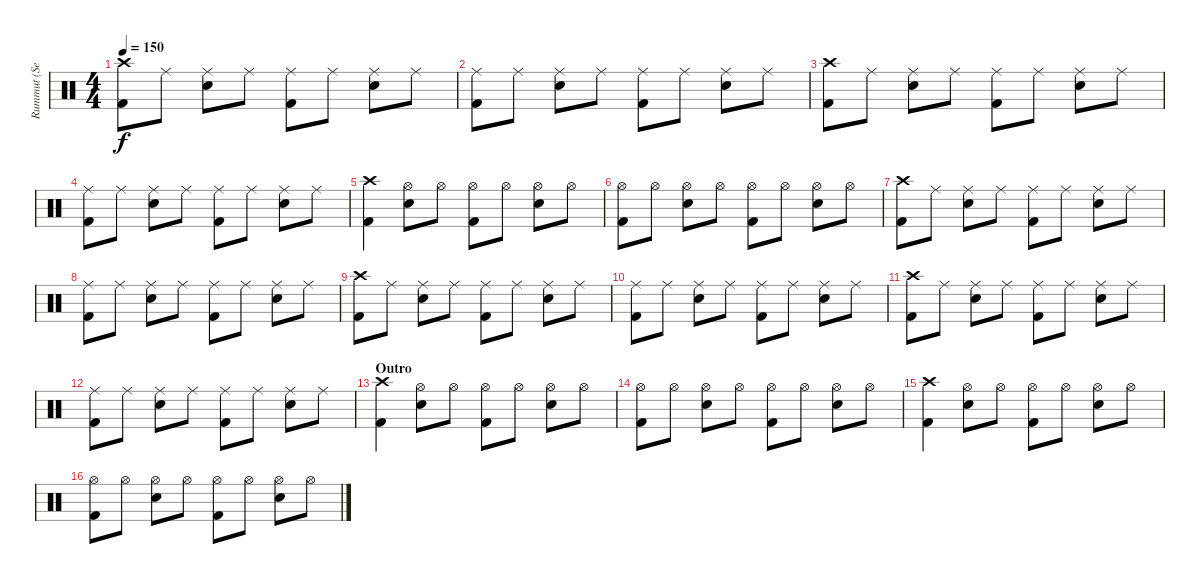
\track ("Rummut (Seppo Pohjolainen)" "Rummut (Se") {instrument percussion}
\staff {score}
\articulation defaults
\ts (4 4)
\tempo 150
\clef neutral
\ks c
("Crash high (hit)" "Kick (hit) 2").8{dy f} "Ride (middle)".8 ("Ride (middle)" "Snare (hit) 2").8 "Ride (middle)".8 ("Ride (middle)" "Kick (hit) 2").8 "Ride (middle)".8 ("Ride (middle)" "Snare (hit) 2").8 "Ride (middle)".8 |
("Ride (middle)" "Kick (hit) 2").8 "Ride (middle)".8 ("Ride (middle)" "Snare (hit) 2").8 "Ride (middle)".8 ("Ride (middle)" "Kick (hit) 2").8 "Ride (middle)".8 ("Ride (middle)" "Snare (hit) 2").8 "Ride (middle)".8 |
("Crash high (hit)" "Kick (hit) 2").8 "Ride (middle)".8 ("Ride (middle)" "Snare (hit) 2").8 "Ride (middle)".8 ("Ride (middle)" "Kick (hit) 2").8 "Ride (middle)".8 ("Ride (middle)" "Snare (hit) 2").8 "Ride (middle)".8 |
("Ride (middle)" "Kick (hit) 2").8 "Ride (middle)".8 ("Ride (middle)" "Snare (hit) 2").8 "Ride (middle)".8 ("Ride (middle)" "Kick (hit) 2").8 "Ride (middle)".8 ("Ride (middle)" "Snare (hit) 2").8 "Ride (middle)".8 |
("Crash high (hit)" "Kick (hit) 2").4 ("Hi-Hat (open)" "Snare (hit) 2").8 "Hi-Hat (open)".8 ("Hi-Hat (open)" "Kick (hit) 2").8 "Hi-Hat (open)".8 ("Hi-Hat (open)" "Snare (hit) 2").8 "Hi-Hat (open)".8 |
("Hi-Hat (open)" "Kick (hit) 2").8 "Hi-Hat (open)".8 ("Hi-Hat (open)" "Snare (hit) 2").8 "Hi-Hat (open)".8 ("Hi-Hat (open)" "Kick (hit) 2").8 "Hi-Hat (open)".8 ("Hi-Hat (open)" "Snare (hit) 2").8 "Hi-Hat (open)".8 |
("Crash high (hit)" "Kick (hit) 2").8 "Ride (middle)".8 ("Ride (middle)" "Snare (hit) 2").8 "Ride (middle)".8 ("Ride (middle)" "Kick (hit) 2").8 "Ride (middle)".8 ("Ride (middle)" "Snare (hit) 2").8 "Ride (middle)".8 |
("Ride (middle)" "Kick (hit) 2").8 "Ride (middle)".8 ("Ride (middle)" "Snare (hit) 2").8 "Ride (middle)".8 ("Ride (middle)" "Kick (hit) 2").8 "Ride (middle)".8 ("Ride (middle)" "Snare (hit) 2").8 "Ride (middle)".8 |
("Crash high (hit)" "Kick (hit) 2").8 "Ride (middle)".8 ("Ride (middle)" "Snare (hit) 2").8 "Ride (middle)".8 ("Ride (middle)" "Kick (hit) 2").8 "Ride (middle)".8 ("Ride (middle)" "Snare (hit) 2").8 "Ride (middle)".8 |
("Ride (middle)" "Kick (hit) 2").8 "Ride (middle)".8 ("Ride (middle)" "Snare (hit) 2").8 "Ride (middle)".8 ("Ride (middle)" "Kick (hit) 2").8 "Ride (middle)".8 ("Ride (middle)" "Snare (hit) 2").8 "Ride (middle)".8 |
("Crash high (hit)" "Kick (hit) 2").8 "Ride (middle)".8 ("Ride (middle)" "Snare (hit) 2").8 "Ride (middle)".8 ("Ride (middle)" "Kick (hit) 2").8 "Ride (middle)".8 ("Ride (middle)" "Snare (hit) 2").8 "Ride (middle)".8 |
("Ride (middle)" "Kick (hit) 2").8 "Ride (middle)".8 ("Ride (middle)" "Snare (hit) 2").8 "Ride (middle)".8 ("Ride (middle)" "Kick (hit) 2").8 "Ride (middle)".8 ("Ride (middle)" "Snare (hit) 2").8 "Ride (middle)".8 |
\section ("" "Outro")
("Crash high (hit)" "Kick (hit) 2").4 ("Hi-Hat (open)" "Snare (hit) 2").8 "Hi-Hat (open)".8 ("Hi-Hat (open)" "Kick (hit) 2").8 "Hi-Hat (open)".8 ("Hi-Hat (open)" "Snare (hit) 2").8 "Hi-Hat (open)".8 |
("Hi-Hat (open)" "Kick (hit) 2").8 "Hi-Hat (open)".8 ("Hi-Hat (open)" "Snare (hit) 2").8 "Hi-Hat (open)".8 ("Hi-Hat (open)" "Kick (hit) 2").8 "Hi-Hat (open)".8 ("Hi-Hat (open)" "Snare (hit) 2").8 "Hi-Hat (open)".8 |
("Crash high (hit)" "Kick (hit) 2").4 ("Hi-Hat (open)" "Snare (hit) 2").8 "Hi-Hat (open)".8 ("Hi-Hat (open)" "Kick (hit) 2").8 "Hi-Hat (open)".8 ("Hi-Hat (open)" "Snare (hit) 2").8 "Hi-Hat (open)".8 |
("Hi-Hat (open)" "Kick (hit) 2").8 "Hi-Hat (open)".8 ("Hi-Hat (open)" "Snare (hit) 2").8 "Hi-Hat (open)".8 ("Hi-Hat (open)" "Kick (hit) 2").8 "Hi-Hat (open)".8 ("Hi-Hat (open)" "Snare (hit) 2").8 "Hi-Hat (open)".8
